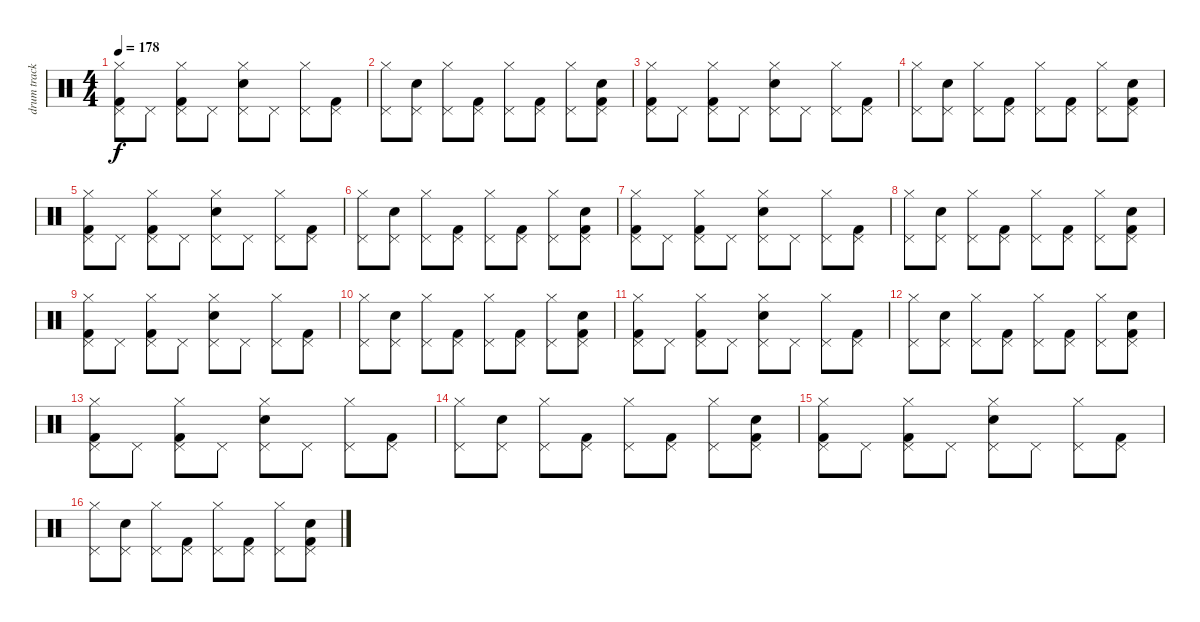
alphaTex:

\track ("drum track" "drum track") {instrument percussion}
\staff {score}
\articulation defaults
\ts (4 4)
\tempo 178
\clef neutral
\ks c
("Hi-Hat (closed)" "Pedal Hi-Hat (hit)" "Kick (hit) 2").8{dy f} "Pedal Hi-Hat (hit)".8 ("Hi-Hat (closed)" "Pedal Hi-Hat (hit)" "Kick (hit) 2").8 "Pedal Hi-Hat (hit)".8 ("Snare (hit) 2" "Hi-Hat (closed)" "Pedal Hi-Hat (hit)").8 "Pedal Hi-Hat (hit)".8 ("Hi-Hat (closed)" "Pedal Hi-Hat (hit)").8 ("Pedal Hi-Hat (hit)" "Kick (hit) 2").8 |
("Hi-Hat (closed)" "Pedal Hi-Hat (hit)").8 ("Snare (hit) 2" "Pedal Hi-Hat (hit)").8 ("Hi-Hat (closed)" "Pedal Hi-Hat (hit)").8 ("Kick (hit) 2" "Pedal Hi-Hat (hit)").8 ("Hi-Hat (closed)" "Pedal Hi-Hat (hit)").8 ("Kick (hit) 2" "Pedal Hi-Hat (hit)").8 ("Hi-Hat (closed)" "Pedal Hi-Hat (hit)").8 ("Kick (hit) 2" "Snare (hit) 2" "Pedal Hi-Hat (hit)").8 |
("Hi-Hat (closed)" "Pedal Hi-Hat (hit)" "Kick (hit) 2").8 "Pedal Hi-Hat (hit)".8 ("Hi-Hat (closed)" "Pedal Hi-Hat (hit)" "Kick (hit) 2").8 "Pedal Hi-Hat (hit)".8 ("Snare (hit) 2" "Hi-Hat (closed)" "Pedal Hi-Hat (hit)").8 "Pedal Hi-Hat (hit)".8 ("Hi-Hat (closed)" "Pedal Hi-Hat (hit)").8 ("Pedal Hi-Hat (hit)" "Kick (hit) 2").8 |
("Hi-Hat (closed)" "Pedal Hi-Hat (hit)").8 ("Snare (hit) 2" "Pedal Hi-Hat (hit)").8 ("Hi-Hat (closed)" "Pedal Hi-Hat (hit)").8 ("Kick (hit) 2" "Pedal Hi-Hat (hit)").8 ("Hi-Hat (closed)" "Pedal Hi-Hat (hit)").8 ("Kick (hit) 2" "Pedal Hi-Hat (hit)").8 ("Hi-Hat (closed)" "Pedal Hi-Hat (hit)").8 ("Kick (hit) 2" "Snare (hit) 2" "Pedal Hi-Hat (hit)").8 |
("Hi-Hat (closed)" "Pedal Hi-Hat (hit)" "Kick (hit) 2").8 "Pedal Hi-Hat (hit)".8 ("Hi-Hat (closed)" "Pedal Hi-Hat (hit)" "Kick (hit) 2").8 "Pedal Hi-Hat (hit)".8 ("Snare (hit) 2" "Hi-Hat (closed)" "Pedal Hi-Hat (hit)").8 "Pedal Hi-Hat (hit)".8 ("Hi-Hat (closed)" "Pedal Hi-Hat (hit)").8 ("Pedal Hi-Hat (hit)" "Kick (hit) 2").8 |
("Hi-Hat (closed)" "Pedal Hi-Hat (hit)").8 ("Snare (hit) 2" "Pedal Hi-Hat (hit)").8 ("Hi-Hat (closed)" "Pedal Hi-Hat (hit)").8 ("Kick (hit) 2" "Pedal Hi-Hat (hit)").8 ("Hi-Hat (closed)" "Pedal Hi-Hat (hit)").8 ("Kick (hit) 2" "Pedal Hi-Hat (hit)").8 ("Hi-Hat (closed)" "Pedal Hi-Hat (hit)").8 ("Kick (hit) 2" "Snare (hit) 2" "Pedal Hi-Hat (hit)").8 |
("Hi-Hat (closed)" "Pedal Hi-Hat (hit)" "Kick (hit) 2").8 "Pedal Hi-Hat (hit)".8 ("Hi-Hat (closed)" "Pedal Hi-Hat (hit)" "Kick (hit) 2").8 "Pedal Hi-Hat (hit)".8 ("Snare (hit) 2" "Hi-Hat (closed)" "Pedal Hi-Hat (hit)").8 "Pedal Hi-Hat (hit)".8 ("Hi-Hat (closed)" "Pedal Hi-Hat (hit)").8 ("Pedal Hi-Hat (hit)" "Kick (hit) 2").8 |
("Hi-Hat (closed)" "Pedal Hi-Hat (hit)").8 ("Snare (hit) 2" "Pedal Hi-Hat (hit)").8 ("Hi-Hat (closed)" "Pedal Hi-Hat (hit)").8 ("Kick (hit) 2" "Pedal Hi-Hat (hit)").8 ("Hi-Hat (closed)" "Pedal Hi-Hat (hit)").8 ("Kick (hit) 2" "Pedal Hi-Hat (hit)").8 ("Hi-Hat (closed)" "Pedal Hi-Hat (hit)").8 ("Kick (hit) 2" "Snare (hit) 2" "Pedal Hi-Hat (hit)").8 |
("Hi-Hat (closed)" "Pedal Hi-Hat (hit)" "Kick (hit) 2").8 "Pedal Hi-Hat (hit)".8 ("Hi-Hat (closed)" "Pedal Hi-Hat (hit)" "Kick (hit) 2").8 "Pedal Hi-Hat (hit)".8 ("Snare (hit) 2" "Hi-Hat (closed)" "Pedal Hi-Hat (hit)").8 "Pedal Hi-Hat (hit)".8 ("Hi-Hat (closed)" "Pedal Hi-Hat (hit)").8 ("Pedal Hi-Hat (hit)" "Kick (hit) 2").8 |
("Hi-Hat (closed)" "Pedal Hi-Hat (hit)").8 ("Snare (hit) 2" "Pedal Hi-Hat (hit)").8 ("Hi-Hat (closed)" "Pedal Hi-Hat (hit)").8 ("Kick (hit) 2" "Pedal Hi-Hat (hit)").8 ("Hi-Hat (closed)" "Pedal Hi-Hat (hit)").8 ("Kick (hit) 2" "Pedal Hi-Hat (hit)").8 ("Hi-Hat (closed)" "Pedal Hi-Hat (hit)").8 ("Kick (hit) 2" "Snare (hit) 2" "Pedal Hi-Hat (hit)").8 |
("Hi-Hat (closed)" "Pedal Hi-Hat (hit)" "Kick (hit) 2").8 "Pedal Hi-Hat (hit)".8 ("Hi-Hat (closed)" "Pedal Hi-Hat (hit)" "Kick (hit) 2").8 "Pedal Hi-Hat (hit)".8 ("Snare (hit) 2" "Hi-Hat (closed)" "Pedal Hi-Hat (hit)").8 "Pedal Hi-Hat (hit)".8 ("Hi-Hat (closed)" "Pedal Hi-Hat (hit)").8 ("Pedal Hi-Hat (hit)" "Kick (hit) 2").8 |
("Hi-Hat (closed)" "Pedal Hi-Hat (hit)").8 ("Snare (hit) 2" "Pedal Hi-Hat (hit)").8 ("Hi-Hat (closed)" "Pedal Hi-Hat (hit)").8 ("Kick (hit) 2" "Pedal Hi-Hat (hit)").8 ("Hi-Hat (closed)" "Pedal Hi-Hat (hit)").8 ("Kick (hit) 2" "Pedal Hi-Hat (hit)").8 ("Hi-Hat (closed)" "Pedal Hi-Hat (hit)").8 ("Kick (hit) 2" "Snare (hit) 2" "Pedal Hi-Hat (hit)").8 |
("Hi-Hat (closed)" "Pedal Hi-Hat (hit)" "Kick (hit) 2").8 "Pedal Hi-Hat (hit)".8 ("Hi-Hat (closed)" "Pedal Hi-Hat (hit)" "Kick (hit) 2").8 "Pedal Hi-Hat (hit)".8 ("Snare (hit) 2" "Hi-Hat (closed)" "Pedal Hi-Hat (hit)").8 "Pedal Hi-Hat (hit)".8 ("Hi-Hat (closed)" "Pedal Hi-Hat (hit)").8 ("Pedal Hi-Hat (hit)" "Kick (hit) 2").8 |
("Hi-Hat (closed)" "Pedal Hi-Hat (hit)").8 ("Snare (hit) 2" "Pedal Hi-Hat (hit)").8 ("Hi-Hat (closed)" "Pedal Hi-Hat (hit)").8 ("Kick (hit) 2" "Pedal Hi-Hat (hit)").8 ("Hi-Hat (closed)" "Pedal Hi-Hat (hit)").8 ("Kick (hit) 2" "Pedal Hi-Hat (hit)").8 ("Hi-Hat (closed)" "Pedal Hi-Hat (hit)").8 ("Kick (hit) 2" "Snare (hit) 2" "Pedal Hi-Hat (hit)").8 |
("Hi-Hat (closed)" "Pedal Hi-Hat (hit)" "Kick (hit) 2").8 "Pedal Hi-Hat (hit)".8 ("Hi-Hat (closed)" "Pedal Hi-Hat (hit)" "Kick (hit) 2").8 "Pedal Hi-Hat (hit)".8 ("Snare (hit) 2" "Hi-Hat (closed)" "Pedal Hi-Hat (hit)").8 "Pedal Hi-Hat (hit)".8 ("Hi-Hat (closed)" "Pedal Hi-Hat (hit)").8 ("Pedal Hi-Hat (hit)" "Kick (hit) 2").8 |
("Hi-Hat (closed)" "Pedal Hi-Hat (hit)").8 ("Snare (hit) 2" "Pedal Hi-Hat (hit)").8 ("Hi-Hat (closed)" "Pedal Hi-Hat (hit)").8 ("Kick (hit) 2" "Pedal Hi-Hat (hit)").8 ("Hi-Hat (closed)" "Pedal Hi-Hat (hit)").8 ("Kick (hit) 2" "Pedal Hi-Hat (hit)").8 ("Hi-Hat (closed)" "Pedal Hi-Hat (hit)").8 ("Kick (hit) 2" "Snare (hit) 2" "Pedal Hi-Hat (hit)").8
